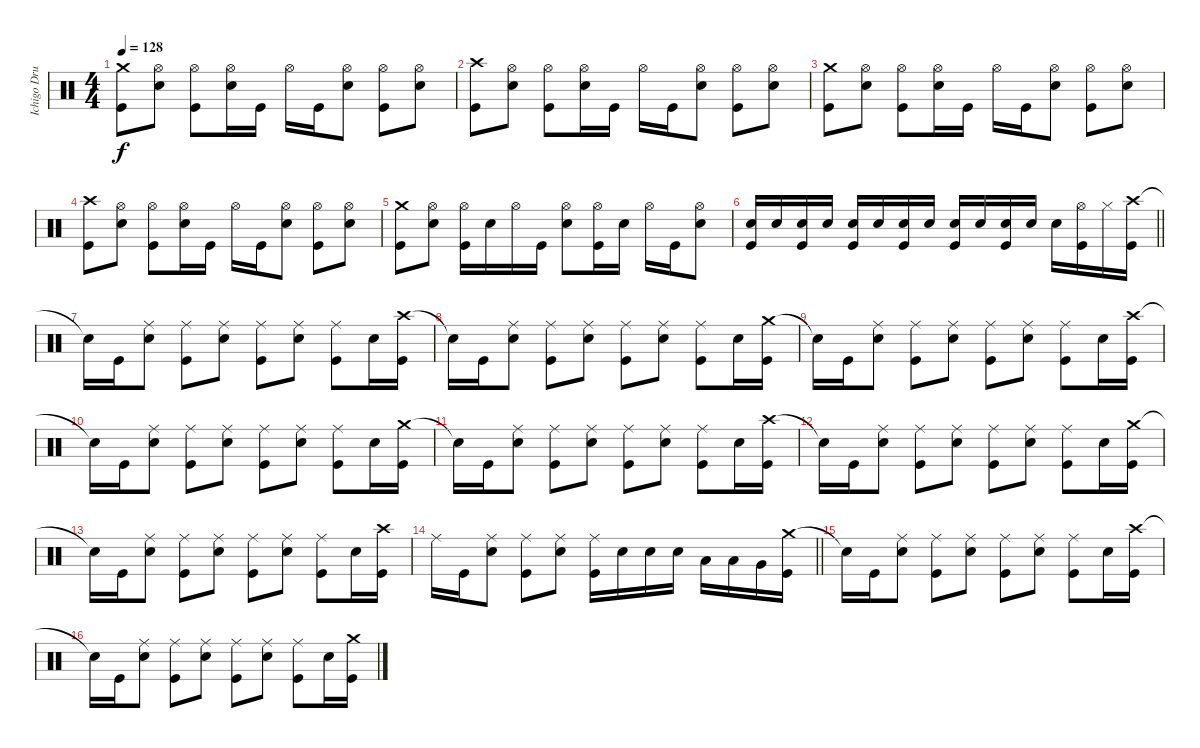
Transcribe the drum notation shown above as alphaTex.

\track ("Ichigo Drums" "Ichigo Dru") {instrument percussion}
\staff {score}
\articulation defaults
\ts (4 4)
\tempo 128
\clef neutral
\ks c
("Crash medium (hit)" "Kick (hit)").8{dy f} ("Hi-Hat (open)" "Snare (hit) 2").8 ("Hi-Hat (open)" "Kick (hit)").8 ("Hi-Hat (open)" "Snare (hit) 2").16 "Kick (hit)".16 "Hi-Hat (open)".16 "Kick (hit)".16 ("Hi-Hat (open)" "Snare (hit) 2").8 ("Hi-Hat (open)" "Kick (hit)").8 ("Hi-Hat (open)" "Snare (hit) 2").8 |
("Crash high (hit)" "Kick (hit)").8 ("Hi-Hat (open)" "Snare (hit) 2").8 ("Hi-Hat (open)" "Kick (hit)").8 ("Hi-Hat (open)" "Snare (hit) 2").16 "Kick (hit)".16 "Hi-Hat (open)".16 "Kick (hit)".16 ("Hi-Hat (open)" "Snare (hit) 2").8 ("Hi-Hat (open)" "Kick (hit)").8 ("Hi-Hat (open)" "Snare (hit) 2").8 |
("Crash medium (hit)" "Kick (hit)").8 ("Hi-Hat (open)" "Snare (hit) 2").8 ("Hi-Hat (open)" "Kick (hit)").8 ("Hi-Hat (open)" "Snare (hit) 2").16 "Kick (hit)".16 "Hi-Hat (open)".16 "Kick (hit)".16 ("Hi-Hat (open)" "Snare (hit) 2").8 ("Hi-Hat (open)" "Kick (hit)").8 ("Hi-Hat (open)" "Snare (hit) 2").8 |
("Crash high (hit)" "Kick (hit)").8 ("Hi-Hat (open)" "Snare (hit) 2").8 ("Hi-Hat (open)" "Kick (hit)").8 ("Hi-Hat (open)" "Snare (hit) 2").16 "Kick (hit)".16 "Hi-Hat (open)".16 "Kick (hit)".16 ("Hi-Hat (open)" "Snare (hit) 2").8 ("Hi-Hat (open)" "Kick (hit)").8 ("Hi-Hat (open)" "Snare (hit) 2").8 |
("Crash medium (hit)" "Kick (hit)").8 ("Hi-Hat (open)" "Snare (hit) 2").8 ("Hi-Hat (open)" "Kick (hit)").16 "Snare (hit) 2".16 "Hi-Hat (open)".16 "Kick (hit)".16 ("Hi-Hat (open)" "Snare (hit) 2").8 ("Hi-Hat (open)" "Kick (hit)").16 "Snare (hit) 2".16 "Hi-Hat (open)".16 "Kick (hit)".16 ("Hi-Hat (open)" "Snare (hit) 2").8 |
\barLineRight lightlight
("Snare (hit) 2" "Kick (hit)").16 "Snare (hit) 2".16 ("Snare (hit) 2" "Kick (hit)").16 "Snare (hit) 2".16 ("Snare (hit) 2" "Kick (hit)").16 "Snare (hit) 2".16 ("Snare (hit) 2" "Kick (hit)").16 "Snare (hit) 2".16 ("Snare (hit) 2" "Kick (hit)").16 "Snare (hit) 2".16 ("Snare (hit) 2" "Kick (hit)").16 "Snare (hit) 2".16 "Snare (hit) 2".16 ("Hi-Hat (open)" "Kick (hit)").16 "Hi-Hat (closed)".16 ("Crash high (hit)" "Kick (hit)").16 |
"Snare (hit)"{t}.16 "Kick (hit)".16 ("Ride (middle)" "Snare (hit) 2").8 ("Ride (middle)" "Kick (hit)").8 ("Ride (middle)" "Snare (hit) 2").8 ("Ride (middle)" "Kick (hit)").8 ("Ride (middle)" "Snare (hit) 2").8 ("Ride (middle)" "Kick (hit)").8 "Snare (hit) 2".16 ("Crash high (hit)" "Kick (hit)").16 |
"Snare (hit)"{t}.16 "Kick (hit)".16 ("Ride (middle)" "Snare (hit) 2").8 ("Ride (middle)" "Kick (hit)").8 ("Ride (middle)" "Snare (hit) 2").8 ("Ride (middle)" "Kick (hit)").8 ("Ride (middle)" "Snare (hit) 2").8 ("Ride (middle)" "Kick (hit)").8 "Snare (hit) 2".16 ("Crash medium (hit)" "Kick (hit)").16 |
"Snare (hit)"{t}.16 "Kick (hit)".16 ("Ride (middle)" "Snare (hit) 2").8 ("Ride (middle)" "Kick (hit)").8 ("Ride (middle)" "Snare (hit) 2").8 ("Ride (middle)" "Kick (hit)").8 ("Ride (middle)" "Snare (hit) 2").8 ("Ride (middle)" "Kick (hit)").8 "Snare (hit) 2".16 ("Crash high (hit)" "Kick (hit)").16 |
"Snare (hit)"{t}.16 "Kick (hit)".16 ("Ride (middle)" "Snare (hit) 2").8 ("Ride (middle)" "Kick (hit)").8 ("Ride (middle)" "Snare (hit) 2").8 ("Ride (middle)" "Kick (hit)").8 ("Ride (middle)" "Snare (hit) 2").8 ("Ride (middle)" "Kick (hit)").8 "Snare (hit) 2".16 ("Crash medium (hit)" "Kick (hit)").16 |
"Snare (hit)"{t}.16 "Kick (hit)".16 ("Ride (middle)" "Snare (hit) 2").8 ("Ride (middle)" "Kick (hit)").8 ("Ride (middle)" "Snare (hit) 2").8 ("Ride (middle)" "Kick (hit)").8 ("Ride (middle)" "Snare (hit) 2").8 ("Ride (middle)" "Kick (hit)").8 "Snare (hit) 2".16 ("Crash high (hit)" "Kick (hit)").16 |
"Snare (hit)"{t}.16 "Kick (hit)".16 ("Ride (middle)" "Snare (hit) 2").8 ("Ride (middle)" "Kick (hit)").8 ("Ride (middle)" "Snare (hit) 2").8 ("Ride (middle)" "Kick (hit)").8 ("Ride (middle)" "Snare (hit) 2").8 ("Ride (middle)" "Kick (hit)").8 "Snare (hit) 2".16 ("Crash medium (hit)" "Kick (hit)").16 |
"Snare (hit)"{t}.16 "Kick (hit)".16 ("Ride (middle)" "Snare (hit) 2").8 ("Ride (middle)" "Kick (hit)").8 ("Ride (middle)" "Snare (hit) 2").8 ("Ride (middle)" "Kick (hit)").8 ("Ride (middle)" "Snare (hit) 2").8 ("Ride (middle)" "Kick (hit)").8 "Snare (hit) 2".16 ("Crash high (hit)" "Kick (hit)").16 |
\barLineRight lightlight "Ride (middle)".16 "Kick (hit)".16
("Ride (middle)" "Snare (hit) 2").8 ("Ride (middle)" "Kick (hit)").8 ("Ride (middle)" "Snare (hit) 2").8 ("Ride (middle)" "Kick (hit)").16 "Snare (hit) 2".16 "Snare (hit) 2".16 "Snare (hit) 2".16 "Low Tom (hit)".16 "Low Tom (hit)".16 "Very Low Tom (hit)".16 ("Crash medium (hit)" "Kick (hit)").16 |
"Snare (hit)"{t}.16 "Kick (hit)".16 ("Ride (middle)" "Snare (hit) 2").8 ("Ride (middle)" "Kick (hit)").8 ("Ride (middle)" "Snare (hit) 2").8 ("Ride (middle)" "Kick (hit)").8 ("Ride (middle)" "Snare (hit) 2").8 ("Ride (middle)" "Kick (hit)").8 "Snare (hit) 2".16 ("Crash high (hit)" "Kick (hit)").16 |
"Snare (hit)"{t}.16 "Kick (hit)".16 ("Ride (middle)" "Snare (hit) 2").8 ("Ride (middle)" "Kick (hit)").8 ("Ride (middle)" "Snare (hit) 2").8 ("Ride (middle)" "Kick (hit)").8 ("Ride (middle)" "Snare (hit) 2").8 ("Ride (middle)" "Kick (hit)").8 "Snare (hit) 2".16 ("Crash medium (hit)" "Kick (hit)").16
